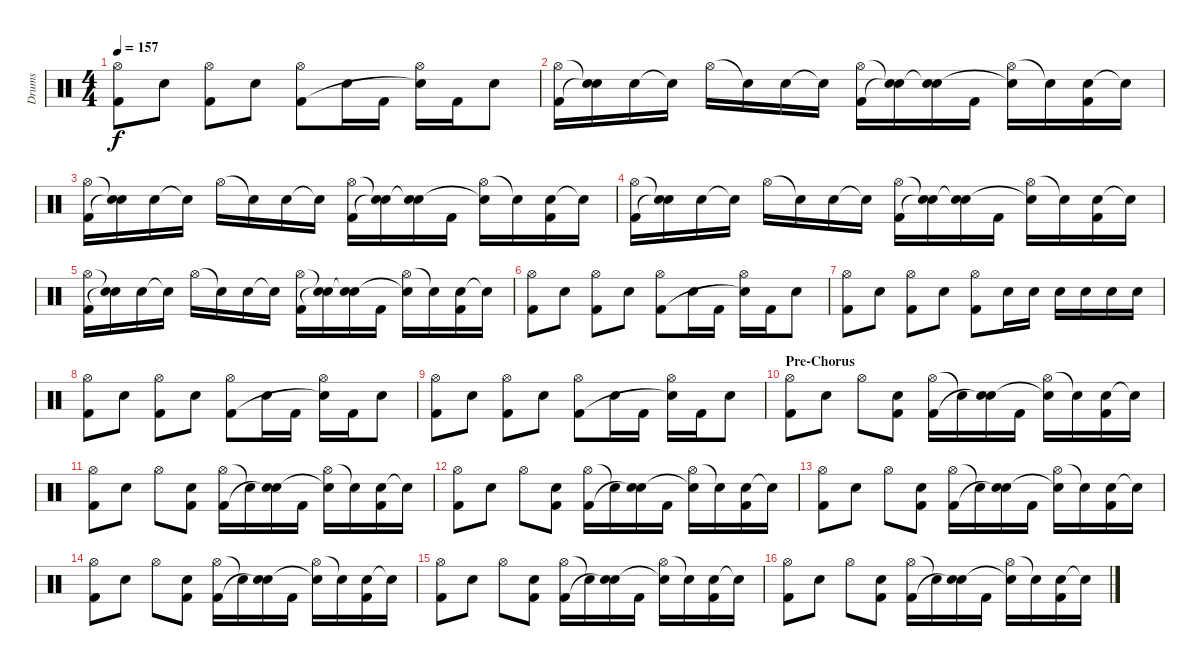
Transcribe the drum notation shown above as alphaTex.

\track ("Drums" "Drums") {instrument percussion}
\staff {score}
\articulation defaults
\ts (4 4)
\tempo 157
\clef neutral
\ks c
("Hi-Hat (open)" "Kick (hit) 2").8{dy f} "Electric Snare (hit)".8 ("Hi-Hat (open)" "Kick (hit) 2").8 "Electric Snare (hit)".8 ("Hi-Hat (open)" "Kick (hit) 2").8 "Electric Snare (hit)".16 "Kick (hit) 2".16 ("Hi-Hat (open)" "Snare (hit)"{t}).16 "Kick (hit) 2".16 "Electric Snare (hit)".8 |
("Hi-Hat (open)" "Kick (hit) 2").16 ("Snare (hit)"{t} "Snare (hit)"{t}).16 "Electric Snare (hit)".16 "Snare (hit)"{t}.16 "Hi-Hat (open)".16 "Snare (hit)"{t}.16 "Electric Snare (hit)".16 "Snare (hit)"{t}.16 ("Hi-Hat (open)" "Kick (hit) 2").16 ("Snare (hit)"{t} "Snare (hit)"{t}).16 ("Electric Snare (hit)" "Snare (hit)"{t}).16 "Kick (hit) 2".16 ("Hi-Hat (open)" "Snare (hit)"{t}).16 "Snare (hit)"{t}.16 ("Electric Snare (hit)" "Kick (hit) 2").16 "Snare (hit)"{t}.16 |
("Hi-Hat (open)" "Kick (hit) 2").16 ("Snare (hit)"{t} "Snare (hit)"{t}).16 "Electric Snare (hit)".16 "Snare (hit)"{t}.16 "Hi-Hat (open)".16 "Snare (hit)"{t}.16 "Electric Snare (hit)".16 "Snare (hit)"{t}.16 ("Hi-Hat (open)" "Kick (hit) 2").16 ("Snare (hit)"{t} "Snare (hit)"{t}).16 ("Electric Snare (hit)" "Snare (hit)"{t}).16 "Kick (hit) 2".16 ("Hi-Hat (open)" "Snare (hit)"{t}).16 "Snare (hit)"{t}.16 ("Electric Snare (hit)" "Kick (hit) 2").16 "Snare (hit)"{t}.16 |
("Hi-Hat (open)" "Kick (hit) 2").16 ("Snare (hit)"{t} "Snare (hit)"{t}).16 "Electric Snare (hit)".16 "Snare (hit)"{t}.16 "Hi-Hat (open)".16 "Snare (hit)"{t}.16 "Electric Snare (hit)".16 "Snare (hit)"{t}.16 ("Hi-Hat (open)" "Kick (hit) 2").16 ("Snare (hit)"{t} "Snare (hit)"{t}).16 ("Electric Snare (hit)" "Snare (hit)"{t}).16 "Kick (hit) 2".16 ("Hi-Hat (open)" "Snare (hit)"{t}).16 "Snare (hit)"{t}.16 ("Electric Snare (hit)" "Kick (hit) 2").16 "Snare (hit)"{t}.16 |
("Hi-Hat (open)" "Kick (hit) 2").16 ("Snare (hit)"{t} "Snare (hit)"{t}).16 "Electric Snare (hit)".16 "Snare (hit)"{t}.16 "Hi-Hat (open)".16 "Snare (hit)"{t}.16 "Electric Snare (hit)".16 "Snare (hit)"{t}.16 ("Hi-Hat (open)" "Kick (hit) 2").16 ("Snare (hit)"{t} "Snare (hit)"{t}).16 ("Electric Snare (hit)" "Snare (hit)"{t}).16 "Kick (hit) 2".16 ("Hi-Hat (open)" "Snare (hit)"{t}).16 "Snare (hit)"{t}.16 ("Electric Snare (hit)" "Kick (hit) 2").16 "Snare (hit)"{t}.16 |
("Hi-Hat (open)" "Kick (hit) 2").8 "Electric Snare (hit)".8 ("Hi-Hat (open)" "Kick (hit) 2").8 "Electric Snare (hit)".8 ("Hi-Hat (open)" "Kick (hit) 2").8 "Electric Snare (hit)".16 "Kick (hit) 2".16 ("Hi-Hat (open)" "Snare (hit)"{t}).16 "Kick (hit) 2".16 "Electric Snare (hit)".8 |
("Hi-Hat (open)" "Kick (hit) 2").8 "Electric Snare (hit)".8 ("Hi-Hat (open)" "Kick (hit) 2").8 "Electric Snare (hit)".8 ("Hi-Hat (open)" "Kick (hit) 2").8 "Electric Snare (hit)".16 "Electric Snare (hit)".16 "Electric Snare (hit)".16 "Electric Snare (hit)".16 "Electric Snare (hit)".16 "Electric Snare (hit)".16 |
("Hi-Hat (open)" "Kick (hit) 2").8 "Electric Snare (hit)".8 ("Hi-Hat (open)" "Kick (hit) 2").8 "Electric Snare (hit)".8 ("Hi-Hat (open)" "Kick (hit) 2").8 "Electric Snare (hit)".16 "Kick (hit) 2".16 ("Hi-Hat (open)" "Snare (hit)"{t}).16 "Kick (hit) 2".16 "Electric Snare (hit)".8 |
("Hi-Hat (open)" "Kick (hit) 2").8 "Electric Snare (hit)".8 ("Hi-Hat (open)" "Kick (hit) 2").8 "Electric Snare (hit)".8 ("Hi-Hat (open)" "Kick (hit) 2").8 "Electric Snare (hit)".16 "Kick (hit) 2".16 ("Hi-Hat (open)" "Snare (hit)"{t}).16 "Kick (hit) 2".16 "Electric Snare (hit)".8 |
\section ("" "Pre-Chorus")
("Hi-Hat (open)" "Kick (hit) 2").8 "Electric Snare (hit)".8 "Hi-Hat (open)".8 ("Electric Snare (hit)" "Kick (hit) 2").8 ("Hi-Hat (open)" "Kick (hit) 2").16 "Snare (hit)"{t}.16 ("Electric Snare (hit)" "Snare (hit)"{t}).16 "Kick (hit) 2".16 ("Hi-Hat (open)" "Snare (hit)"{t}).16 "Snare (hit)"{t}.16 ("Electric Snare (hit)" "Kick (hit) 2").16 "Snare (hit)"{t}.16 |
("Hi-Hat (open)" "Kick (hit) 2").8 "Electric Snare (hit)".8 "Hi-Hat (open)".8 ("Electric Snare (hit)" "Kick (hit) 2").8 ("Hi-Hat (open)" "Kick (hit) 2").16 "Snare (hit)"{t}.16 ("Electric Snare (hit)" "Snare (hit)"{t}).16 "Kick (hit) 2".16 ("Hi-Hat (open)" "Snare (hit)"{t}).16 "Snare (hit)"{t}.16 ("Electric Snare (hit)" "Kick (hit) 2").16 "Snare (hit)"{t}.16 |
("Hi-Hat (open)" "Kick (hit) 2").8 "Electric Snare (hit)".8 "Hi-Hat (open)".8 ("Electric Snare (hit)" "Kick (hit) 2").8 ("Hi-Hat (open)" "Kick (hit) 2").16 "Snare (hit)"{t}.16 ("Electric Snare (hit)" "Snare (hit)"{t}).16 "Kick (hit) 2".16 ("Hi-Hat (open)" "Snare (hit)"{t}).16 "Snare (hit)"{t}.16 ("Electric Snare (hit)" "Kick (hit) 2").16 "Snare (hit)"{t}.16 |
("Hi-Hat (open)" "Kick (hit) 2").8 "Electric Snare (hit)".8 "Hi-Hat (open)".8 ("Electric Snare (hit)" "Kick (hit) 2").8 ("Hi-Hat (open)" "Kick (hit) 2").16 "Snare (hit)"{t}.16 ("Electric Snare (hit)" "Snare (hit)"{t}).16 "Kick (hit) 2".16 ("Hi-Hat (open)" "Snare (hit)"{t}).16 "Snare (hit)"{t}.16 ("Electric Snare (hit)" "Kick (hit) 2").16 "Snare (hit)"{t}.16 |
("Hi-Hat (open)" "Kick (hit) 2").8 "Electric Snare (hit)".8 "Hi-Hat (open)".8 ("Electric Snare (hit)" "Kick (hit) 2").8 ("Hi-Hat (open)" "Kick (hit) 2").16 "Snare (hit)"{t}.16 ("Electric Snare (hit)" "Snare (hit)"{t}).16 "Kick (hit) 2".16 ("Hi-Hat (open)" "Snare (hit)"{t}).16 "Snare (hit)"{t}.16 ("Electric Snare (hit)" "Kick (hit) 2").16 "Snare (hit)"{t}.16 |
("Hi-Hat (open)" "Kick (hit) 2").8 "Electric Snare (hit)".8 "Hi-Hat (open)".8 ("Electric Snare (hit)" "Kick (hit) 2").8 ("Hi-Hat (open)" "Kick (hit) 2").16 "Snare (hit)"{t}.16 ("Electric Snare (hit)" "Snare (hit)"{t}).16 "Kick (hit) 2".16 ("Hi-Hat (open)" "Snare (hit)"{t}).16 "Snare (hit)"{t}.16 ("Electric Snare (hit)" "Kick (hit) 2").16 "Snare (hit)"{t}.16 |
("Hi-Hat (open)" "Kick (hit) 2").8 "Electric Snare (hit)".8 "Hi-Hat (open)".8 ("Electric Snare (hit)" "Kick (hit) 2").8 ("Hi-Hat (open)" "Kick (hit) 2").16 "Snare (hit)"{t}.16 ("Electric Snare (hit)" "Snare (hit)"{t}).16 "Kick (hit) 2".16 ("Hi-Hat (open)" "Snare (hit)"{t}).16 "Snare (hit)"{t}.16 ("Electric Snare (hit)" "Kick (hit) 2").16 "Snare (hit)"{t}.16
